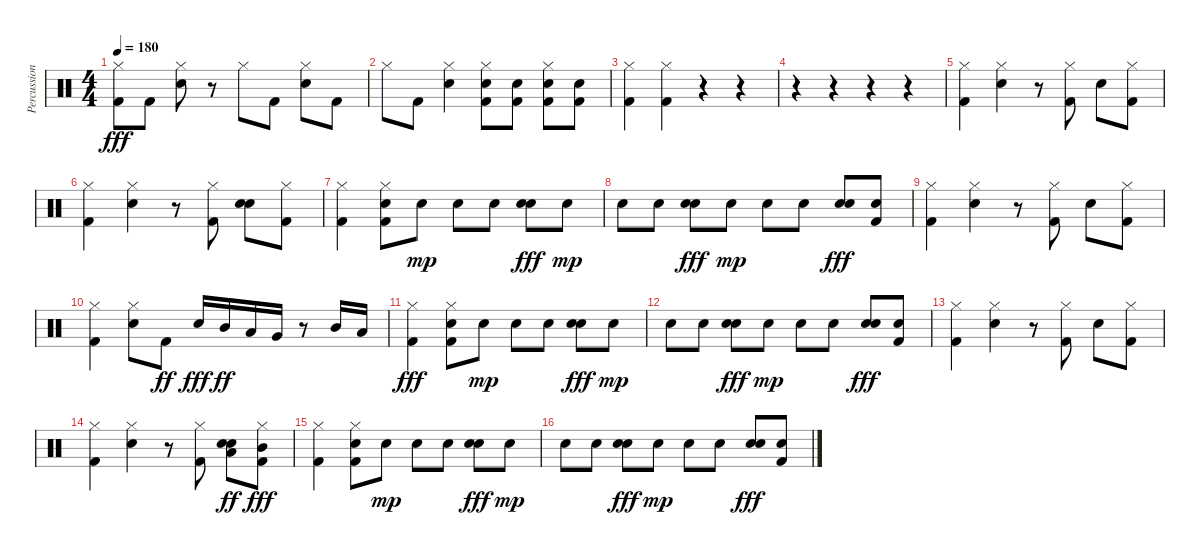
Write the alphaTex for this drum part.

\track ("Percussion" "Percussion") {instrument percussion}
\staff {score}
\articulation defaults
\ts (4 4)
\tempo 180
\clef neutral
\ks c
("Hi-Hat (closed)" "Kick (hit) 2").8{dy fff} "Kick (hit) 2".8 ("Hi-Hat (closed)" "Snare (hit) 2").8 r.8 "Hi-Hat (closed)".8 "Kick (hit) 2".8 ("Hi-Hat (closed)" "Snare (hit) 2").8 "Kick (hit) 2".8 |
"Hi-Hat (closed)".8 "Kick (hit) 2".8 ("Hi-Hat (closed)" "Snare (hit) 2").4 ("Hi-Hat (closed)" "Snare (hit) 2" "Kick (hit) 2").8 ("Snare (hit) 2" "Kick (hit) 2").8 ("Hi-Hat (closed)" "Snare (hit) 2" "Kick (hit) 2").8 ("Snare (hit) 2" "Kick (hit) 2").8 |
("Hi-Hat (closed)" "Kick (hit) 2").4 ("Hi-Hat (closed)" "Kick (hit) 2").4 r.4 r.4 |
r.4 r.4 r.4 r.4 |
("Hi-Hat (closed)" "Kick (hit) 2").4 ("Hi-Hat (closed)" "Snare (hit) 2").4 r.8 ("Hi-Hat (closed)" "Kick (hit) 2").8 "Snare (hit) 2".8 ("Hi-Hat (closed)" "Kick (hit) 2").8 |
("Hi-Hat (closed)" "Kick (hit) 2").4 ("Hi-Hat (closed)" "Snare (hit) 2").4 r.8 ("Hi-Hat (closed)" "Kick (hit) 2").8 ("Snare (hit) 2" "Snare (hit) 2").8 ("Hi-Hat (closed)" "Kick (hit) 2").8 |
("Hi-Hat (closed)" "Kick (hit) 2").4 ("Hi-Hat (closed)" "Snare (hit) 2" "Kick (hit) 2").8 "Snare (hit) 2".8{dy mp} "Snare (hit) 2".8 "Snare (hit) 2".8 ("Snare (hit) 2" "Snare (hit) 2").8{dy fff} "Snare (hit) 2".8{dy mp} |
"Snare (hit) 2".8 "Snare (hit) 2".8 ("Snare (hit) 2" "Snare (hit) 2").8{dy fff} "Snare (hit) 2".8{dy mp} "Snare (hit) 2".8 "Snare (hit) 2".8 ("Snare (hit) 2" "Snare (hit) 2").8{dy fff} ("Snare (hit) 2" "Kick (hit) 2").8 |
("Hi-Hat (closed)" "Kick (hit) 2").4 ("Hi-Hat (closed)" "Snare (hit) 2").4 r.8 ("Hi-Hat (closed)" "Kick (hit) 2").8 "Snare (hit) 2".8 ("Hi-Hat (closed)" "Kick (hit) 2").8 |
("Hi-Hat (closed)" "Kick (hit) 2").4 ("Hi-Hat (closed)" "Snare (hit) 2").8 "Kick (hit) 2".8{dy ff} "Snare (hit) 2".16{dy fff} "Mid Tom (hit)".16{dy ff} "Low Tom (hit)".16 "Very Low Tom (hit)".16 r.8 "Mid Tom (hit)".16 "Low Tom (hit)".16 |
("Hi-Hat (closed)" "Kick (hit) 2").4{dy fff} ("Hi-Hat (closed)" "Snare (hit) 2" "Kick (hit) 2").8 "Snare (hit) 2".8{dy mp} "Snare (hit) 2".8 "Snare (hit) 2".8 ("Snare (hit) 2" "Snare (hit) 2").8{dy fff} "Snare (hit) 2".8{dy mp} |
"Snare (hit) 2".8 "Snare (hit) 2".8 ("Snare (hit) 2" "Snare (hit) 2").8{dy fff} "Snare (hit) 2".8{dy mp} "Snare (hit) 2".8 "Snare (hit) 2".8 ("Snare (hit) 2" "Snare (hit) 2").8{dy fff} ("Snare (hit) 2" "Kick (hit) 2").8 |
("Hi-Hat (closed)" "Kick (hit) 2").4 ("Hi-Hat (closed)" "Snare (hit) 2").4 r.8 ("Hi-Hat (closed)" "Kick (hit) 2").8 "Snare (hit) 2".8 ("Hi-Hat (closed)" "Kick (hit) 2").8 |
("Hi-Hat (closed)" "Kick (hit) 2").4 ("Hi-Hat (closed)" "Snare (hit) 2").4 r.8 ("Hi-Hat (closed)" "Kick (hit) 2").8 ("Snare (hit) 2" "Snare (hit) 2" "Low Tom (hit)").8{dy ff} ("Hi-Hat (closed)" "Mid Tom (hit)" "Kick (hit) 2").8{dy fff} |
("Hi-Hat (closed)" "Kick (hit) 2").4 ("Hi-Hat (closed)" "Snare (hit) 2" "Kick (hit) 2").8 "Snare (hit) 2".8{dy mp} "Snare (hit) 2".8 "Snare (hit) 2".8 ("Snare (hit) 2" "Snare (hit) 2").8{dy fff} "Snare (hit) 2".8{dy mp} |
"Snare (hit) 2".8 "Snare (hit) 2".8 ("Snare (hit) 2" "Snare (hit) 2").8{dy fff} "Snare (hit) 2".8{dy mp} "Snare (hit) 2".8 "Snare (hit) 2".8 ("Snare (hit) 2" "Snare (hit) 2").8{dy fff} ("Snare (hit) 2" "Kick (hit) 2").8
